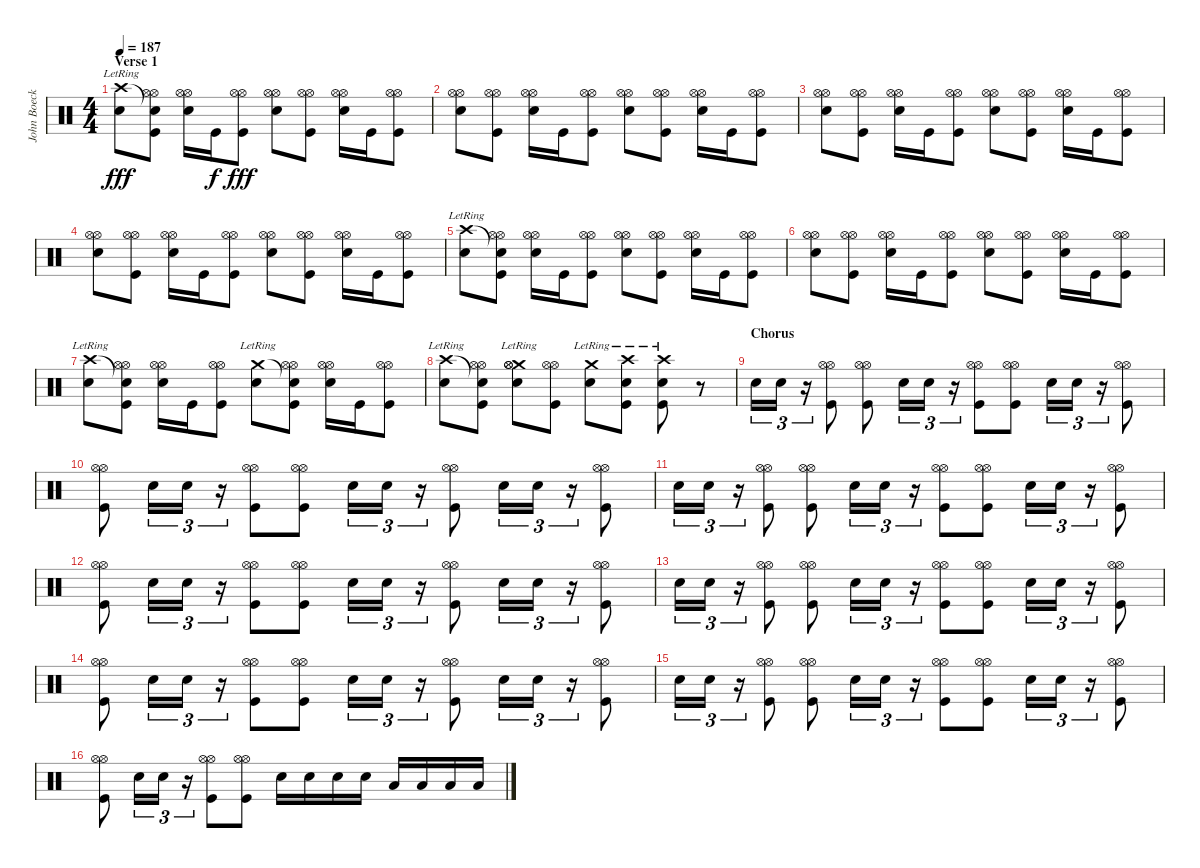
\track ("John Boecklin - Drums" "John Boeck") {instrument percussion}
\staff {score}
\articulation defaults
\ts (4 4)
\section ("" "Verse 1")
\tempo 187
\clef neutral
\ks c
("Crash high (hit)"{lr} "Snare (hit) 2").8{dy fff} ("Snare (hit)"{t} "Hi-Hat (open)" "Hi-Hat (open)" "Kick (hit)").8 ("Snare (hit) 2" "Hi-Hat (open)" "Hi-Hat (open)").16 "Kick (hit)".16{dy f} ("Hi-Hat (open)" "Hi-Hat (open)" "Kick (hit)").8{dy fff} ("Snare (hit) 2" "Hi-Hat (open)" "Hi-Hat (open)").8 ("Hi-Hat (open)" "Hi-Hat (open)" "Kick (hit)").8 ("Snare (hit) 2" "Hi-Hat (open)" "Hi-Hat (open)").16 "Kick (hit)".16 ("Hi-Hat (open)" "Hi-Hat (open)" "Kick (hit)").8 |
("Snare (hit) 2" "Hi-Hat (open)" "Hi-Hat (open)").8 ("Hi-Hat (open)" "Hi-Hat (open)" "Kick (hit)").8 ("Snare (hit) 2" "Hi-Hat (open)" "Hi-Hat (open)").16 "Kick (hit)".16 ("Hi-Hat (open)" "Hi-Hat (open)" "Kick (hit)").8 ("Snare (hit) 2" "Hi-Hat (open)" "Hi-Hat (open)").8 ("Hi-Hat (open)" "Hi-Hat (open)" "Kick (hit)").8 ("Snare (hit) 2" "Hi-Hat (open)" "Hi-Hat (open)").16 "Kick (hit)".16 ("Hi-Hat (open)" "Hi-Hat (open)" "Kick (hit)").8 |
("Snare (hit) 2" "Hi-Hat (open)" "Hi-Hat (open)").8 ("Hi-Hat (open)" "Hi-Hat (open)" "Kick (hit)").8 ("Snare (hit) 2" "Hi-Hat (open)" "Hi-Hat (open)").16 "Kick (hit)".16 ("Hi-Hat (open)" "Hi-Hat (open)" "Kick (hit)").8 ("Snare (hit) 2" "Hi-Hat (open)" "Hi-Hat (open)").8 ("Hi-Hat (open)" "Hi-Hat (open)" "Kick (hit)").8 ("Snare (hit) 2" "Hi-Hat (open)" "Hi-Hat (open)").16 "Kick (hit)".16 ("Hi-Hat (open)" "Hi-Hat (open)" "Kick (hit)").8 |
("Snare (hit) 2" "Hi-Hat (open)" "Hi-Hat (open)").8 ("Hi-Hat (open)" "Hi-Hat (open)" "Kick (hit)").8 ("Snare (hit) 2" "Hi-Hat (open)" "Hi-Hat (open)").16 "Kick (hit)".16 ("Hi-Hat (open)" "Hi-Hat (open)" "Kick (hit)").8 ("Snare (hit) 2" "Hi-Hat (open)" "Hi-Hat (open)").8 ("Hi-Hat (open)" "Hi-Hat (open)" "Kick (hit)").8 ("Snare (hit) 2" "Hi-Hat (open)" "Hi-Hat (open)").16 "Kick (hit)".16 ("Hi-Hat (open)" "Hi-Hat (open)" "Kick (hit)").8 |
("Crash high (hit)"{lr} "Snare (hit) 2").8 ("Snare (hit)"{t} "Hi-Hat (open)" "Hi-Hat (open)" "Kick (hit)").8 ("Snare (hit) 2" "Hi-Hat (open)" "Hi-Hat (open)").16 "Kick (hit)".16 ("Hi-Hat (open)" "Hi-Hat (open)" "Kick (hit)").8 ("Snare (hit) 2" "Hi-Hat (open)" "Hi-Hat (open)").8 ("Hi-Hat (open)" "Hi-Hat (open)" "Kick (hit)").8 ("Snare (hit) 2" "Hi-Hat (open)" "Hi-Hat (open)").16 "Kick (hit)".16 ("Hi-Hat (open)" "Hi-Hat (open)" "Kick (hit)").8 |
("Snare (hit) 2" "Hi-Hat (open)" "Hi-Hat (open)").8 ("Hi-Hat (open)" "Hi-Hat (open)" "Kick (hit)").8 ("Snare (hit) 2" "Hi-Hat (open)" "Hi-Hat (open)").16 "Kick (hit)".16 ("Hi-Hat (open)" "Hi-Hat (open)" "Kick (hit)").8 ("Snare (hit) 2" "Hi-Hat (open)" "Hi-Hat (open)").8 ("Hi-Hat (open)" "Hi-Hat (open)" "Kick (hit)").8 ("Snare (hit) 2" "Hi-Hat (open)" "Hi-Hat (open)").16 "Kick (hit)".16 ("Hi-Hat (open)" "Hi-Hat (open)" "Kick (hit)").8 |
("Crash high (hit)"{lr} "Snare (hit) 2").8 ("Snare (hit)"{t} "Hi-Hat (open)" "Hi-Hat (open)" "Kick (hit)").8 ("Snare (hit) 2" "Hi-Hat (open)" "Hi-Hat (open)").16 "Kick (hit)".16 ("Hi-Hat (open)" "Hi-Hat (open)" "Kick (hit)").8 ("Crash medium (hit)"{lr} "Snare (hit) 2").8 ("Snare (hit)"{t} "Hi-Hat (open)" "Hi-Hat (open)" "Kick (hit)").8 ("Snare (hit) 2" "Hi-Hat (open)" "Hi-Hat (open)").16 "Kick (hit)".16 ("Hi-Hat (open)" "Hi-Hat (open)" "Kick (hit)").8 |
("Crash high (hit)"{lr} "Snare (hit) 2").8 ("Snare (hit)"{t} "Hi-Hat (open)" "Hi-Hat (open)" "Kick (hit)").8 ("Crash medium (hit)"{lr} "Snare (hit) 2" "Hi-Hat (open)" "Hi-Hat (open)").8 ("Hi-Hat (open)" "Hi-Hat (open)" "Kick (hit)").8 ("Crash medium (hit)"{lr} "Snare (hit) 2").8 ("Crash high (hit)"{lr} "Snare (hit) 2" "Kick (hit)").8 ("Crash high (hit)"{lr} "Snare (hit) 2" "Kick (hit)").8 r.8 |
\section ("" "Chorus")
"Snare (hit) 2".16{tu (3 2)} "Snare (hit) 2".16{tu (3 2)} r.16{tu (3 2)} ("Hi-Hat (open)" "Hi-Hat (open)" "Kick (hit)").8 ("Hi-Hat (open)" "Hi-Hat (open)" "Kick (hit)").8 "Snare (hit) 2".16{tu (3 2)} "Snare (hit) 2".16{tu (3 2)} r.16{tu (3 2)} ("Hi-Hat (open)" "Hi-Hat (open)" "Kick (hit)").8 ("Hi-Hat (open)" "Hi-Hat (open)" "Kick (hit)").8 "Snare (hit) 2".16{tu (3 2)} "Snare (hit) 2".16{tu (3 2)} r.16{tu (3 2)} ("Hi-Hat (open)" "Hi-Hat (open)" "Kick (hit)").8 |
("Hi-Hat (open)" "Hi-Hat (open)" "Kick (hit)").8 "Snare (hit) 2".16{tu (3 2)} "Snare (hit) 2".16{tu (3 2)} r.16{tu (3 2)} ("Hi-Hat (open)" "Hi-Hat (open)" "Kick (hit)").8 ("Hi-Hat (open)" "Hi-Hat (open)" "Kick (hit)").8 "Snare (hit) 2".16{tu (3 2)} "Snare (hit) 2".16{tu (3 2)} r.16{tu (3 2)} ("Hi-Hat (open)" "Hi-Hat (open)" "Kick (hit)").8 "Snare (hit) 2".16{tu (3 2)} "Snare (hit) 2".16{tu (3 2)} r.16{tu (3 2)} ("Hi-Hat (open)" "Hi-Hat (open)" "Kick (hit)").8 |
"Snare (hit) 2".16{tu (3 2)} "Snare (hit) 2".16{tu (3 2)} r.16{tu (3 2)} ("Hi-Hat (open)" "Hi-Hat (open)" "Kick (hit)").8 ("Hi-Hat (open)" "Hi-Hat (open)" "Kick (hit)").8 "Snare (hit) 2".16{tu (3 2)} "Snare (hit) 2".16{tu (3 2)} r.16{tu (3 2)} ("Hi-Hat (open)" "Hi-Hat (open)" "Kick (hit)").8 ("Hi-Hat (open)" "Hi-Hat (open)" "Kick (hit)").8 "Snare (hit) 2".16{tu (3 2)} "Snare (hit) 2".16{tu (3 2)} r.16{tu (3 2)} ("Hi-Hat (open)" "Hi-Hat (open)" "Kick (hit)").8 |
("Hi-Hat (open)" "Hi-Hat (open)" "Kick (hit)").8 "Snare (hit) 2".16{tu (3 2)} "Snare (hit) 2".16{tu (3 2)} r.16{tu (3 2)} ("Hi-Hat (open)" "Hi-Hat (open)" "Kick (hit)").8 ("Hi-Hat (open)" "Hi-Hat (open)" "Kick (hit)").8 "Snare (hit) 2".16{tu (3 2)} "Snare (hit) 2".16{tu (3 2)} r.16{tu (3 2)} ("Hi-Hat (open)" "Hi-Hat (open)" "Kick (hit)").8 "Snare (hit) 2".16{tu (3 2)} "Snare (hit) 2".16{tu (3 2)} r.16{tu (3 2)} ("Hi-Hat (open)" "Hi-Hat (open)" "Kick (hit)").8 |
"Snare (hit) 2".16{tu (3 2)} "Snare (hit) 2".16{tu (3 2)} r.16{tu (3 2)} ("Hi-Hat (open)" "Hi-Hat (open)" "Kick (hit)").8 ("Hi-Hat (open)" "Hi-Hat (open)" "Kick (hit)").8 "Snare (hit) 2".16{tu (3 2)} "Snare (hit) 2".16{tu (3 2)} r.16{tu (3 2)} ("Hi-Hat (open)" "Hi-Hat (open)" "Kick (hit)").8 ("Hi-Hat (open)" "Hi-Hat (open)" "Kick (hit)").8 "Snare (hit) 2".16{tu (3 2)} "Snare (hit) 2".16{tu (3 2)} r.16{tu (3 2)} ("Hi-Hat (open)" "Hi-Hat (open)" "Kick (hit)").8 |
("Hi-Hat (open)" "Hi-Hat (open)" "Kick (hit)").8 "Snare (hit) 2".16{tu (3 2)} "Snare (hit) 2".16{tu (3 2)} r.16{tu (3 2)} ("Hi-Hat (open)" "Hi-Hat (open)" "Kick (hit)").8 ("Hi-Hat (open)" "Hi-Hat (open)" "Kick (hit)").8 "Snare (hit) 2".16{tu (3 2)} "Snare (hit) 2".16{tu (3 2)} r.16{tu (3 2)} ("Hi-Hat (open)" "Hi-Hat (open)" "Kick (hit)").8 "Snare (hit) 2".16{tu (3 2)} "Snare (hit) 2".16{tu (3 2)} r.16{tu (3 2)} ("Hi-Hat (open)" "Hi-Hat (open)" "Kick (hit)").8 |
"Snare (hit) 2".16{tu (3 2)} "Snare (hit) 2".16{tu (3 2)} r.16{tu (3 2)} ("Hi-Hat (open)" "Hi-Hat (open)" "Kick (hit)").8 ("Hi-Hat (open)" "Hi-Hat (open)" "Kick (hit)").8 "Snare (hit) 2".16{tu (3 2)} "Snare (hit) 2".16{tu (3 2)} r.16{tu (3 2)} ("Hi-Hat (open)" "Hi-Hat (open)" "Kick (hit)").8 ("Hi-Hat (open)" "Hi-Hat (open)" "Kick (hit)").8 "Snare (hit) 2".16{tu (3 2)} "Snare (hit) 2".16{tu (3 2)} r.16{tu (3 2)} ("Hi-Hat (open)" "Hi-Hat (open)" "Kick (hit)").8 |
("Hi-Hat (open)" "Hi-Hat (open)" "Kick (hit)").8 "Snare (hit) 2".16{tu (3 2)} "Snare (hit) 2".16{tu (3 2)} r.16{tu (3 2)} ("Hi-Hat (open)" "Hi-Hat (open)" "Kick (hit)").8 ("Hi-Hat (open)" "Hi-Hat (open)" "Kick (hit)").8 "Snare (hit) 2".16 "Snare (hit) 2".16 "Snare (hit) 2".16 "Snare (hit) 2".16 "Low Tom (hit)".16 "Low Tom (hit)".16 "Low Tom (hit)".16 "Low Tom (hit)".16
